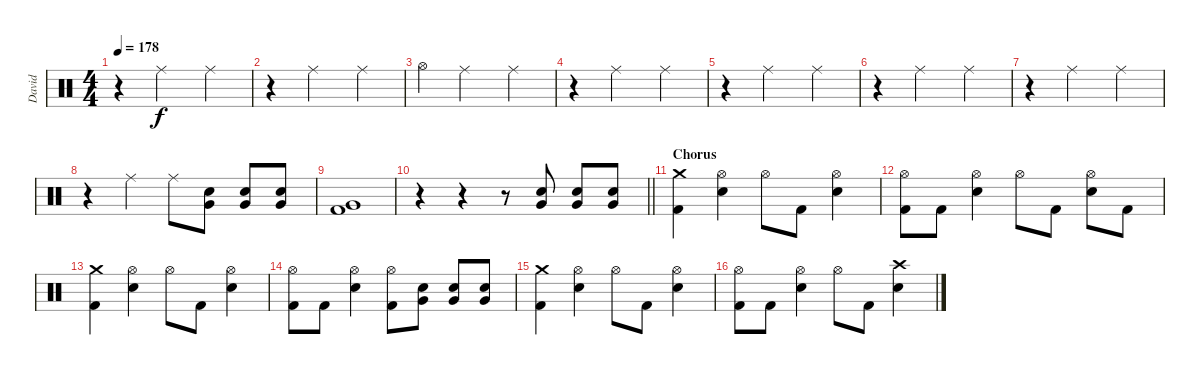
\track ("David" "David") {instrument percussion}
\staff {score}
\articulation defaults
\ts (4 4)
\tempo 178
\clef neutral
\ks c
r.4{dy f} "Ride (middle)".2 "Ride (middle)".4 |
r.4 "Ride (middle)".2 "Ride (middle)".4 |
"Hi-Hat (open)".4 "Ride (middle)".2 "Ride (middle)".4 |
r.4 "Ride (middle)".2 "Ride (middle)".4 |
r.4 "Ride (middle)".2 "Ride (middle)".4 |
r.4 "Ride (middle)".2 "Ride (middle)".4 |
r.4 "Ride (middle)".2 "Ride (middle)".4 |
r.4 "Ride (middle)".4 "Ride (middle)".8 ("Electric Snare (hit)" "Very Low Tom (hit)").8 ("Electric Snare (hit)" "Very Low Tom (hit)").8 ("Electric Snare (hit)" "Very Low Tom (hit)").8 |
("Very Low Tom (hit)" "Kick (hit) 2").1 |
\barLineRight lightlight
r.4 r.4 r.8 ("Electric Snare (hit)" "Very Low Tom (hit)").8 ("Electric Snare (hit)" "Very Low Tom (hit)").8 ("Electric Snare (hit)" "Very Low Tom (hit)").8 |
\section ("" "Chorus")
("Crash medium (hit)" "Kick (hit) 2").4 ("Hi-Hat (open)" "Electric Snare (hit)").4 "Hi-Hat (open)".8 "Kick (hit) 2".8 ("Hi-Hat (open)" "Electric Snare (hit)").4 |
("Hi-Hat (open)" "Kick (hit) 2").8 "Kick (hit) 2".8 ("Hi-Hat (open)" "Electric Snare (hit)").4 "Hi-Hat (open)".8 "Kick (hit) 2".8 ("Hi-Hat (open)" "Electric Snare (hit)").8 "Kick (hit) 2".8 |
("Crash medium (hit)" "Kick (hit) 2").4 ("Hi-Hat (open)" "Electric Snare (hit)").4 "Hi-Hat (open)".8 "Kick (hit) 2".8 ("Hi-Hat (open)" "Electric Snare (hit)").4 |
("Hi-Hat (open)" "Kick (hit) 2").8 "Kick (hit) 2".8 ("Hi-Hat (open)" "Electric Snare (hit)").4 ("Hi-Hat (open)" "Kick (hit) 2").8 ("Electric Snare (hit)" "Very Low Tom (hit)").8 ("Electric Snare (hit)" "Very Low Tom (hit)").8 ("Electric Snare (hit)" "Very Low Tom (hit)").8 |
("Crash medium (hit)" "Kick (hit) 2").4 ("Hi-Hat (open)" "Electric Snare (hit)").4 "Hi-Hat (open)".8 "Kick (hit) 2".8 ("Hi-Hat (open)" "Electric Snare (hit)").4 |
("Hi-Hat (open)" "Kick (hit) 2").8 "Kick (hit) 2".8 ("Hi-Hat (open)" "Electric Snare (hit)").4 "Hi-Hat (open)".8 "Kick (hit) 2".8 ("Crash high (hit)" "Electric Snare (hit)").4
